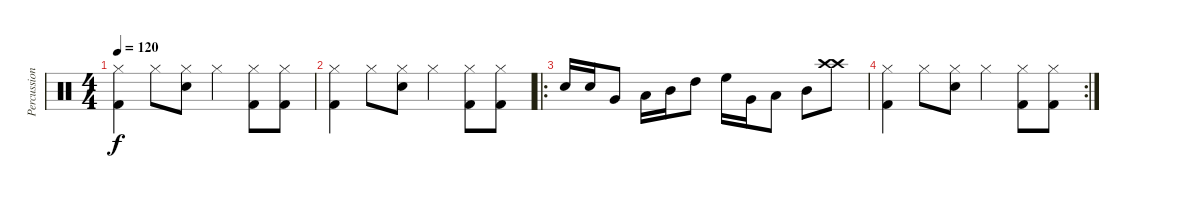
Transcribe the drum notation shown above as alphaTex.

\track ("Percussions" "Percussion") {instrument percussion}
\staff {score}
\articulation defaults
\ts (4 4)
\tempo 120
\clef neutral
\ks c
("Hi-Hat (closed)" "Kick (hit) 2").4{dy f} "Hi-Hat (closed)".8 ("Hi-Hat (closed)" "Electric Snare (hit)").8 "Hi-Hat (closed)".4 ("Hi-Hat (closed)" "Kick (hit) 2").8 ("Hi-Hat (closed)" "Kick (hit) 2").8 |
("Hi-Hat (closed)" "Kick (hit) 2").4 "Hi-Hat (closed)".8 ("Hi-Hat (closed)" "Electric Snare (hit)").8 "Hi-Hat (closed)".4 ("Hi-Hat (closed)" "Kick (hit) 2").8 ("Hi-Hat (closed)" "Kick (hit) 2").8 |
\ro "Snare (hit) 2".16 "Electric Snare (hit)".16 "Very Low Tom (hit)".8 "Low Tom (hit)".16 "Mid Tom (hit)".16 "High Tom (hit)".8 "High Floor Tom (hit)".16 "Very Low Tom (hit)".16 "Low Tom (hit)".8 "Mid Tom (hit)".8
("Crash high (hit)" "Crash high (hit)").8 |
\rc 2
("Hi-Hat (closed)" "Kick (hit) 2").4 "Hi-Hat (closed)".8 ("Hi-Hat (closed)" "Electric Snare (hit)").8 "Hi-Hat (closed)".4 ("Hi-Hat (closed)" "Kick (hit) 2").8 ("Hi-Hat (closed)" "Kick (hit) 2").8
